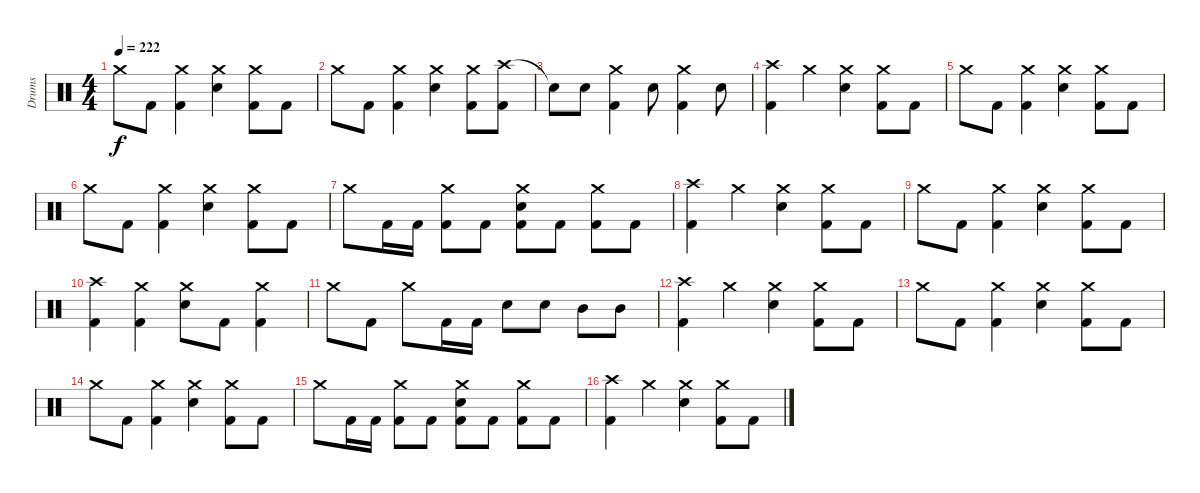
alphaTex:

\track ("Drums" "Drums") {instrument percussion}
\staff {score}
\articulation defaults
\ts (4 4)
\tempo 222
\clef neutral
\ks c "Crash medium (hit)".8{dy f} "Kick (hit) 2".8
("Crash medium (hit)" "Kick (hit) 2").4 ("Crash medium (hit)" "Electric Snare (hit)").4 ("Crash medium (hit)" "Kick (hit) 2").8 "Kick (hit) 2".8 |
"Crash medium (hit)".8 "Kick (hit) 2".8 ("Crash medium (hit)" "Kick (hit) 2").4 ("Crash medium (hit)" "Electric Snare (hit)").4 ("Crash medium (hit)" "Kick (hit) 2").8 ("Crash high (hit)" "Kick (hit) 2").8 |
"Snare (hit)"{t}.8 "Electric Snare (hit)".8 ("Crash medium (hit)" "Kick (hit) 2").4 "Electric Snare (hit)".8 ("Crash medium (hit)" "Kick (hit) 2").4 "Electric Snare (hit)".8 |
("Crash high (hit)" "Kick (hit) 2").4 "Crash medium (hit)".4 ("Crash medium (hit)" "Electric Snare (hit)").4 ("Crash medium (hit)" "Kick (hit) 2").8 "Kick (hit) 2".8 |
"Crash medium (hit)".8 "Kick (hit) 2".8 ("Crash medium (hit)" "Kick (hit) 2").4 ("Crash medium (hit)" "Electric Snare (hit)").4 ("Crash medium (hit)" "Kick (hit) 2").8 "Kick (hit) 2".8 |
"Crash medium (hit)".8 "Kick (hit) 2".8 ("Crash medium (hit)" "Kick (hit) 2").4 ("Crash medium (hit)" "Electric Snare (hit)").4 ("Crash medium (hit)" "Kick (hit) 2").8 "Kick (hit) 2".8 |
"Crash medium (hit)".8 "Kick (hit) 2".16 "Kick (hit) 2".16 ("Crash medium (hit)" "Kick (hit) 2").8 "Kick (hit) 2".8 ("Crash medium (hit)" "Electric Snare (hit)" "Kick (hit) 2").8 "Kick (hit) 2".8 ("Crash medium (hit)" "Kick (hit) 2").8 "Kick (hit) 2".8 |
("Crash high (hit)" "Kick (hit) 2").4 "Crash medium (hit)".4 ("Crash medium (hit)" "Electric Snare (hit)").4 ("Crash medium (hit)" "Kick (hit) 2").8 "Kick (hit) 2".8 |
"Crash medium (hit)".8 "Kick (hit) 2".8 ("Crash medium (hit)" "Kick (hit) 2").4 ("Crash medium (hit)" "Electric Snare (hit)").4 ("Crash medium (hit)" "Kick (hit) 2").8 "Kick (hit) 2".8 |
("Crash high (hit)" "Kick (hit) 2").4 ("Crash medium (hit)" "Kick (hit) 2").4 ("Crash medium (hit)" "Electric Snare (hit)").8 "Kick (hit) 2".8 ("Crash medium (hit)" "Kick (hit) 2").4 |
"Crash medium (hit)".8 "Kick (hit) 2".8 "Crash medium (hit)".8 "Kick (hit) 2".16 "Kick (hit) 2".16 "Electric Snare (hit)".8 "Electric Snare (hit)".8 "Mid Tom (hit)".8 "Mid Tom (hit)".8 |
("Crash high (hit)" "Kick (hit) 2").4 "Crash medium (hit)".4 ("Crash medium (hit)" "Electric Snare (hit)").4 ("Crash medium (hit)" "Kick (hit) 2").8 "Kick (hit) 2".8 |
"Crash medium (hit)".8 "Kick (hit) 2".8 ("Crash medium (hit)" "Kick (hit) 2").4 ("Crash medium (hit)" "Electric Snare (hit)").4 ("Crash medium (hit)" "Kick (hit) 2").8 "Kick (hit) 2".8 |
"Crash medium (hit)".8 "Kick (hit) 2".8 ("Crash medium (hit)" "Kick (hit) 2").4 ("Crash medium (hit)" "Electric Snare (hit)").4 ("Crash medium (hit)" "Kick (hit) 2").8 "Kick (hit) 2".8 |
"Crash medium (hit)".8 "Kick (hit) 2".16 "Kick (hit) 2".16 ("Crash medium (hit)" "Kick (hit) 2").8 "Kick (hit) 2".8 ("Crash medium (hit)" "Electric Snare (hit)" "Kick (hit) 2").8 "Kick (hit) 2".8 ("Crash medium (hit)" "Kick (hit) 2").8 "Kick (hit) 2".8 |
("Crash high (hit)" "Kick (hit) 2").4 "Crash medium (hit)".4 ("Crash medium (hit)" "Electric Snare (hit)").4 ("Crash medium (hit)" "Kick (hit) 2").8 "Kick (hit) 2".8
